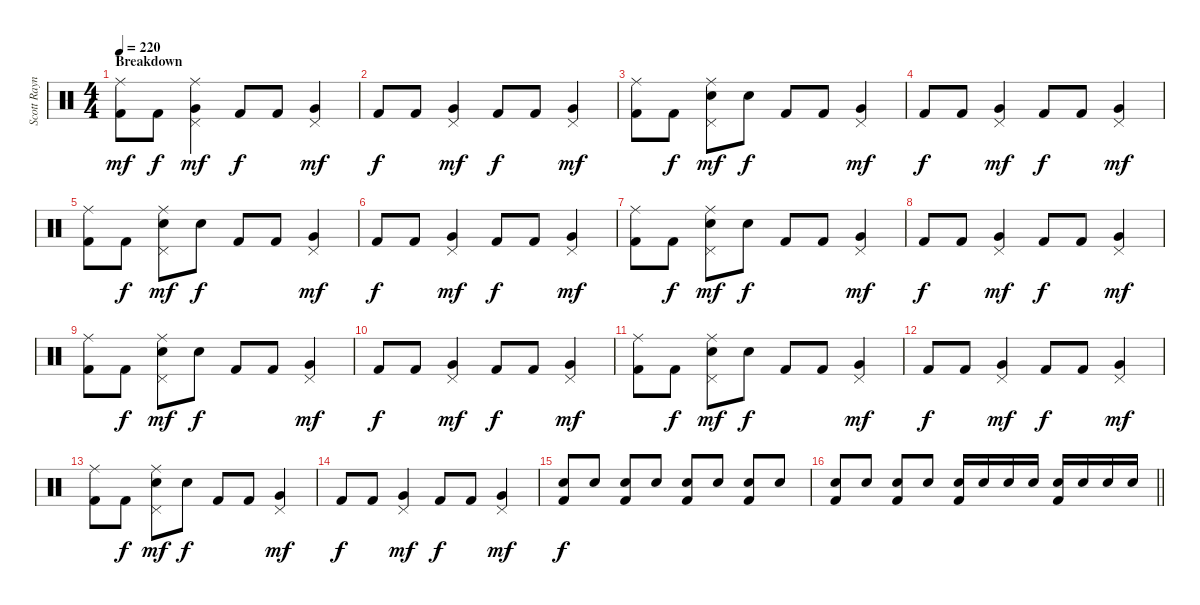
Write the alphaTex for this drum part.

\track ("Scott Raynor - Drums" "Scott Rayn") {instrument percussion}
\staff {score}
\articulation defaults
\ts (4 4)
\section ("" "Breakdown")
\tempo 220
\clef neutral
\ks c
("Ride (middle)" "Kick (hit) 2").8{dy mf} "Kick (hit) 2".8{dy f} ("Ride (middle)" "Pedal Hi-Hat (hit)" "Very Low Tom (hit)").4{dy mf} "Kick (hit) 2".8{dy f} "Kick (hit) 2".8 ("Pedal Hi-Hat (hit)" "Very Low Tom (hit)").4{dy mf} |
"Kick (hit) 2".8{dy f} "Kick (hit) 2".8 ("Pedal Hi-Hat (hit)" "Very Low Tom (hit)").4{dy mf} "Kick (hit) 2".8{dy f} "Kick (hit) 2".8 ("Pedal Hi-Hat (hit)" "Very Low Tom (hit)").4{dy mf} |
("Ride (middle)" "Kick (hit) 2").8 "Kick (hit) 2".8{dy f} ("Ride (middle)" "Pedal Hi-Hat (hit)" "Electric Snare (hit)").8{dy mf} "Electric Snare (hit)".8{dy f} "Kick (hit) 2".8 "Kick (hit) 2".8 ("Pedal Hi-Hat (hit)" "Very Low Tom (hit)").4{dy mf} |
"Kick (hit) 2".8{dy f} "Kick (hit) 2".8 ("Pedal Hi-Hat (hit)" "Very Low Tom (hit)").4{dy mf} "Kick (hit) 2".8{dy f} "Kick (hit) 2".8 ("Pedal Hi-Hat (hit)" "Very Low Tom (hit)").4{dy mf} |
("Ride (middle)" "Kick (hit) 2").8 "Kick (hit) 2".8{dy f} ("Ride (middle)" "Pedal Hi-Hat (hit)" "Electric Snare (hit)").8{dy mf} "Electric Snare (hit)".8{dy f} "Kick (hit) 2".8 "Kick (hit) 2".8 ("Pedal Hi-Hat (hit)" "Very Low Tom (hit)").4{dy mf} |
"Kick (hit) 2".8{dy f} "Kick (hit) 2".8 ("Pedal Hi-Hat (hit)" "Very Low Tom (hit)").4{dy mf} "Kick (hit) 2".8{dy f} "Kick (hit) 2".8 ("Pedal Hi-Hat (hit)" "Very Low Tom (hit)").4{dy mf} |
("Ride (middle)" "Kick (hit) 2").8 "Kick (hit) 2".8{dy f} ("Ride (middle)" "Pedal Hi-Hat (hit)" "Electric Snare (hit)").8{dy mf} "Electric Snare (hit)".8{dy f} "Kick (hit) 2".8 "Kick (hit) 2".8 ("Pedal Hi-Hat (hit)" "Very Low Tom (hit)").4{dy mf} |
"Kick (hit) 2".8{dy f} "Kick (hit) 2".8 ("Pedal Hi-Hat (hit)" "Very Low Tom (hit)").4{dy mf} "Kick (hit) 2".8{dy f} "Kick (hit) 2".8 ("Pedal Hi-Hat (hit)" "Very Low Tom (hit)").4{dy mf} |
("Ride (middle)" "Kick (hit) 2").8 "Kick (hit) 2".8{dy f} ("Ride (middle)" "Pedal Hi-Hat (hit)" "Electric Snare (hit)").8{dy mf} "Electric Snare (hit)".8{dy f} "Kick (hit) 2".8 "Kick (hit) 2".8 ("Pedal Hi-Hat (hit)" "Very Low Tom (hit)").4{dy mf} |
"Kick (hit) 2".8{dy f} "Kick (hit) 2".8 ("Pedal Hi-Hat (hit)" "Very Low Tom (hit)").4{dy mf} "Kick (hit) 2".8{dy f} "Kick (hit) 2".8 ("Pedal Hi-Hat (hit)" "Very Low Tom (hit)").4{dy mf} |
("Ride (middle)" "Kick (hit) 2").8 "Kick (hit) 2".8{dy f} ("Ride (middle)" "Pedal Hi-Hat (hit)" "Electric Snare (hit)").8{dy mf} "Electric Snare (hit)".8{dy f} "Kick (hit) 2".8 "Kick (hit) 2".8 ("Pedal Hi-Hat (hit)" "Very Low Tom (hit)").4{dy mf} |
"Kick (hit) 2".8{dy f} "Kick (hit) 2".8 ("Pedal Hi-Hat (hit)" "Very Low Tom (hit)").4{dy mf} "Kick (hit) 2".8{dy f} "Kick (hit) 2".8 ("Pedal Hi-Hat (hit)" "Very Low Tom (hit)").4{dy mf} |
("Ride (middle)" "Kick (hit) 2").8 "Kick (hit) 2".8{dy f} ("Ride (middle)" "Pedal Hi-Hat (hit)" "Electric Snare (hit)").8{dy mf} "Electric Snare (hit)".8{dy f} "Kick (hit) 2".8 "Kick (hit) 2".8 ("Pedal Hi-Hat (hit)" "Very Low Tom (hit)").4{dy mf} |
"Kick (hit) 2".8{dy f} "Kick (hit) 2".8 ("Pedal Hi-Hat (hit)" "Very Low Tom (hit)").4{dy mf} "Kick (hit) 2".8{dy f} "Kick (hit) 2".8 ("Pedal Hi-Hat (hit)" "Very Low Tom (hit)").4{dy mf} |
("Electric Snare (hit)" "Kick (hit) 2").8{dy f} "Electric Snare (hit)".8 ("Electric Snare (hit)" "Kick (hit) 2").8 "Electric Snare (hit)".8 ("Electric Snare (hit)" "Kick (hit) 2").8 "Electric Snare (hit)".8 ("Electric Snare (hit)" "Kick (hit) 2").8 "Electric Snare (hit)".8 |
\barLineRight lightlight
("Electric Snare (hit)" "Kick (hit) 2").8 "Electric Snare (hit)".8 ("Electric Snare (hit)" "Kick (hit) 2").8 "Electric Snare (hit)".8 ("Electric Snare (hit)" "Kick (hit) 2").16 "Electric Snare (hit)".16 "Electric Snare (hit)".16 "Electric Snare (hit)".16 ("Electric Snare (hit)" "Kick (hit) 2").16 "Electric Snare (hit)".16 "Electric Snare (hit)".16 "Electric Snare (hit)".16
